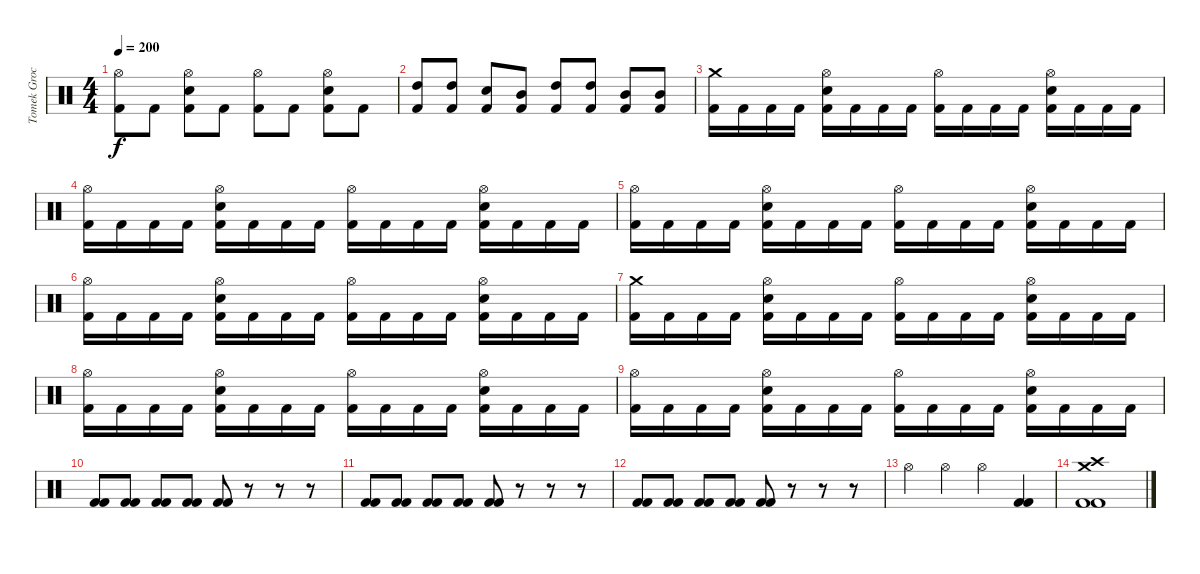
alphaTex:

\track ("Tomek Grochowski" "Tomek Groc") {instrument percussion}
\staff {score}
\articulation defaults
\ts (4 4)
\tempo 200
\clef neutral
\ks c
("Hi-Hat (open)" "Kick (hit) 2").8{dy f} "Kick (hit) 2".8 ("Hi-Hat (open)" "Electric Snare (hit)" "Kick (hit) 2").8 "Kick (hit) 2".8 ("Hi-Hat (open)" "Kick (hit) 2").8 "Kick (hit) 2".8 ("Hi-Hat (open)" "Electric Snare (hit)" "Kick (hit) 2").8 "Kick (hit) 2".8 |
("High Tom (hit)" "Kick (hit) 2").8 ("High Tom (hit)" "Kick (hit) 2").8 ("Electric Snare (hit)" "Kick (hit) 2").8 ("Mid Tom (hit)" "Kick (hit) 2").8 ("High Tom (hit)" "Kick (hit) 2").8 ("High Tom (hit)" "Kick (hit) 2").8 ("Mid Tom (hit)" "Kick (hit) 2").8 ("Mid Tom (hit)" "Kick (hit) 2").8 |
("Crash medium (hit)" "Kick (hit) 2").16 "Kick (hit) 2".16 "Kick (hit) 2".16 "Kick (hit) 2".16 ("Hi-Hat (open)" "Electric Snare (hit)" "Kick (hit) 2").16 "Kick (hit) 2".16 "Kick (hit) 2".16 "Kick (hit) 2".16 ("Hi-Hat (open)" "Kick (hit) 2").16 "Kick (hit) 2".16 "Kick (hit) 2".16 "Kick (hit) 2".16 ("Hi-Hat (open)" "Electric Snare (hit)" "Kick (hit) 2").16 "Kick (hit) 2".16 "Kick (hit) 2".16 "Kick (hit) 2".16 |
("Hi-Hat (open)" "Kick (hit) 2").16 "Kick (hit) 2".16 "Kick (hit) 2".16 "Kick (hit) 2".16 ("Hi-Hat (open)" "Electric Snare (hit)" "Kick (hit) 2").16 "Kick (hit) 2".16 "Kick (hit) 2".16 "Kick (hit) 2".16 ("Hi-Hat (open)" "Kick (hit) 2").16 "Kick (hit) 2".16 "Kick (hit) 2".16 "Kick (hit) 2".16 ("Hi-Hat (open)" "Electric Snare (hit)" "Kick (hit) 2").16 "Kick (hit) 2".16 "Kick (hit) 2".16 "Kick (hit) 2".16 |
("Hi-Hat (open)" "Kick (hit) 2").16 "Kick (hit) 2".16 "Kick (hit) 2".16 "Kick (hit) 2".16 ("Hi-Hat (open)" "Electric Snare (hit)" "Kick (hit) 2").16 "Kick (hit) 2".16 "Kick (hit) 2".16 "Kick (hit) 2".16 ("Hi-Hat (open)" "Kick (hit) 2").16 "Kick (hit) 2".16 "Kick (hit) 2".16 "Kick (hit) 2".16 ("Hi-Hat (open)" "Electric Snare (hit)" "Kick (hit) 2").16 "Kick (hit) 2".16 "Kick (hit) 2".16 "Kick (hit) 2".16 |
("Hi-Hat (open)" "Kick (hit) 2").16 "Kick (hit) 2".16 "Kick (hit) 2".16 "Kick (hit) 2".16 ("Hi-Hat (open)" "Electric Snare (hit)" "Kick (hit) 2").16 "Kick (hit) 2".16 "Kick (hit) 2".16 "Kick (hit) 2".16 ("Hi-Hat (open)" "Kick (hit) 2").16 "Kick (hit) 2".16 "Kick (hit) 2".16 "Kick (hit) 2".16 ("Hi-Hat (open)" "Electric Snare (hit)" "Kick (hit) 2").16 "Kick (hit) 2".16 "Kick (hit) 2".16 "Kick (hit) 2".16 |
("Crash medium (hit)" "Kick (hit) 2").16 "Kick (hit) 2".16 "Kick (hit) 2".16 "Kick (hit) 2".16 ("Hi-Hat (open)" "Electric Snare (hit)" "Kick (hit) 2").16 "Kick (hit) 2".16 "Kick (hit) 2".16 "Kick (hit) 2".16 ("Hi-Hat (open)" "Kick (hit) 2").16 "Kick (hit) 2".16 "Kick (hit) 2".16 "Kick (hit) 2".16 ("Hi-Hat (open)" "Electric Snare (hit)" "Kick (hit) 2").16 "Kick (hit) 2".16 "Kick (hit) 2".16 "Kick (hit) 2".16 |
("Hi-Hat (open)" "Kick (hit) 2").16 "Kick (hit) 2".16 "Kick (hit) 2".16 "Kick (hit) 2".16 ("Hi-Hat (open)" "Electric Snare (hit)" "Kick (hit) 2").16 "Kick (hit) 2".16 "Kick (hit) 2".16 "Kick (hit) 2".16 ("Hi-Hat (open)" "Kick (hit) 2").16 "Kick (hit) 2".16 "Kick (hit) 2".16 "Kick (hit) 2".16 ("Hi-Hat (open)" "Electric Snare (hit)" "Kick (hit) 2").16 "Kick (hit) 2".16 "Kick (hit) 2".16 "Kick (hit) 2".16 |
("Hi-Hat (open)" "Kick (hit) 2").16 "Kick (hit) 2".16 "Kick (hit) 2".16 "Kick (hit) 2".16 ("Hi-Hat (open)" "Electric Snare (hit)" "Kick (hit) 2").16 "Kick (hit) 2".16 "Kick (hit) 2".16 "Kick (hit) 2".16 ("Hi-Hat (open)" "Kick (hit) 2").16 "Kick (hit) 2".16 "Kick (hit) 2".16 "Kick (hit) 2".16 ("Hi-Hat (open)" "Electric Snare (hit)" "Kick (hit) 2").16 "Kick (hit) 2".16 "Kick (hit) 2".16 "Kick (hit) 2".16 |
("Kick (hit) 2" "Kick (hit) 2").8 ("Kick (hit) 2" "Kick (hit) 2").8 ("Kick (hit) 2" "Kick (hit) 2").8 ("Kick (hit) 2" "Kick (hit) 2").8 ("Kick (hit) 2" "Kick (hit) 2").8 r.8 r.8 r.8 |
("Kick (hit) 2" "Kick (hit) 2").8 ("Kick (hit) 2" "Kick (hit) 2").8 ("Kick (hit) 2" "Kick (hit) 2").8 ("Kick (hit) 2" "Kick (hit) 2").8 ("Kick (hit) 2" "Kick (hit) 2").8 r.8 r.8 r.8 |
("Kick (hit) 2" "Kick (hit) 2").8 ("Kick (hit) 2" "Kick (hit) 2").8 ("Kick (hit) 2" "Kick (hit) 2").8 ("Kick (hit) 2" "Kick (hit) 2").8 ("Kick (hit) 2" "Kick (hit) 2").8 r.8 r.8 r.8 |
"Hi-Hat (open)".4 "Hi-Hat (open)".4 "Hi-Hat (open)".4 ("Kick (hit) 2" "Kick (hit) 2").4 |
("Crash high (hit)" "Crash medium (hit)" "Kick (hit) 2" "Kick (hit) 2").1
